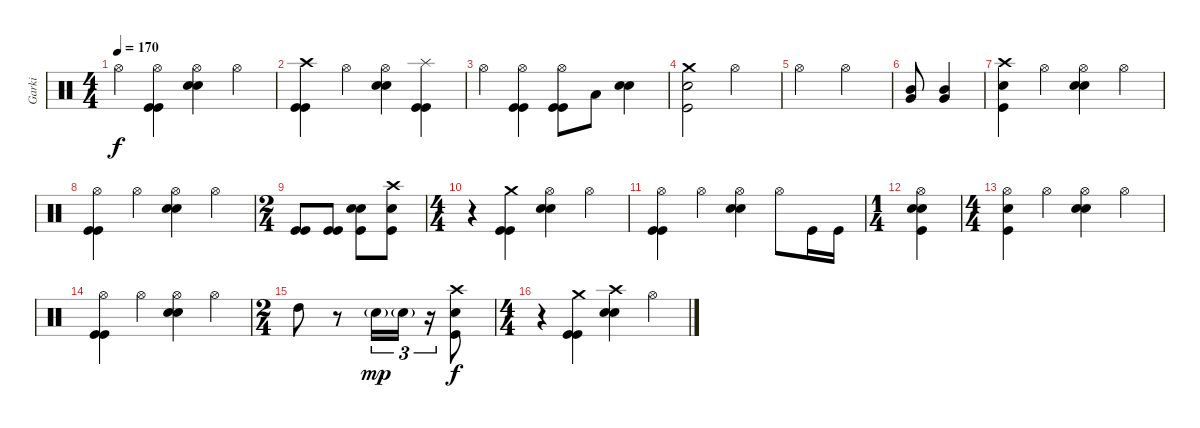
\track ("Garki" "Garki") {instrument percussion}
\staff {score}
\articulation defaults
\ts (4 4)
\tempo 170
\clef neutral
\ks c "Hi-Hat (open)".4{dy f}
("Kick (hit)" "Kick (hit)" "Hi-Hat (open)").4 ("Electric Snare (hit)" "Electric Snare (hit)" "Hi-Hat (open)").4 "Hi-Hat (open)".4 |
("Kick (hit)" "Kick (hit)" "Crash high (hit)").4 "Hi-Hat (open)".4 ("Electric Snare (hit)" "Electric Snare (hit)" "Hi-Hat (open)").4 ("Kick (hit)" "Kick (hit)" "Splash (hit)").4 |
"Hi-Hat (open)".4 ("Kick (hit)" "Kick (hit)" "Hi-Hat (open)").4 ("Kick (hit)" "Kick (hit)" "Hi-Hat (open)").8 "Low Tom (hit)".8 ("Electric Snare (hit)" "Electric Snare (hit)").4 |
("Kick (hit)" "Electric Snare (hit)" "Crash medium (hit)").2 "Hi-Hat (open)".2 |
"Hi-Hat (open)".2 "Hi-Hat (open)".2 |
("Very Low Tom (hit)" "Mid Tom (hit)").8 ("Very Low Tom (hit)" "Mid Tom (hit)").4 |
("Kick (hit)" "Electric Snare (hit)" "Crash high (hit)").4 "Hi-Hat (open)".4 ("Electric Snare (hit)" "Electric Snare (hit)" "Hi-Hat (open)").4 "Hi-Hat (open)".4 |
("Kick (hit)" "Kick (hit)" "Hi-Hat (open)").4 "Hi-Hat (open)".4 ("Electric Snare (hit)" "Electric Snare (hit)" "Hi-Hat (open)").4 "Hi-Hat (open)".4 |
\ts (2 4)
("Kick (hit)" "Kick (hit)").8 ("Kick (hit)" "Kick (hit)").8 ("Kick (hit)" "Electric Snare (hit)" "Electric Snare (hit)").8 ("Kick (hit)" "Electric Snare (hit)" "Crash high (hit)").8 |
\ts (4 4)
r.4 ("Kick (hit)" "Kick (hit)" "Crash medium (hit)").4 ("Electric Snare (hit)" "Electric Snare (hit)" "Hi-Hat (open)").4 "Hi-Hat (open)".4 |
("Kick (hit)" "Kick (hit)" "Hi-Hat (open)").4 "Hi-Hat (open)".4 ("Electric Snare (hit)" "Electric Snare (hit)" "Hi-Hat (open)").4 "Hi-Hat (open)".8 "Kick (hit)".16 "Kick (hit)".16 |
\ts (1 4)
("Kick (hit)" "Electric Snare (hit)" "Electric Snare (hit)" "Hi-Hat (open)").4 |
\ts (4 4)
("Kick (hit)" "Electric Snare (hit)" "Hi-Hat (open)").4 "Hi-Hat (open)".4 ("Electric Snare (hit)" "Electric Snare (hit)" "Hi-Hat (open)").4 "Hi-Hat (open)".4 |
("Kick (hit)" "Kick (hit)" "Hi-Hat (open)").4 "Hi-Hat (open)".4 ("Electric Snare (hit)" "Electric Snare (hit)" "Hi-Hat (open)").4 "Hi-Hat (open)".4 |
\ts (2 4)
"High Tom (hit)".8 r.8 "Electric Snare (hit)"{g}.16{tu (3 2) dy mp} "Electric Snare (hit)"{g}.16{tu (3 2)} r.16{tu (3 2)} ("Kick (hit)" "Electric Snare (hit)" "Crash high (hit)").8{dy f} |
\ts (4 4)
r.4 ("Kick (hit)" "Kick (hit)" "Crash medium (hit)").4 ("Electric Snare (hit)" "Electric Snare (hit)" "Crash high (hit)").4 "Hi-Hat (open)".4
